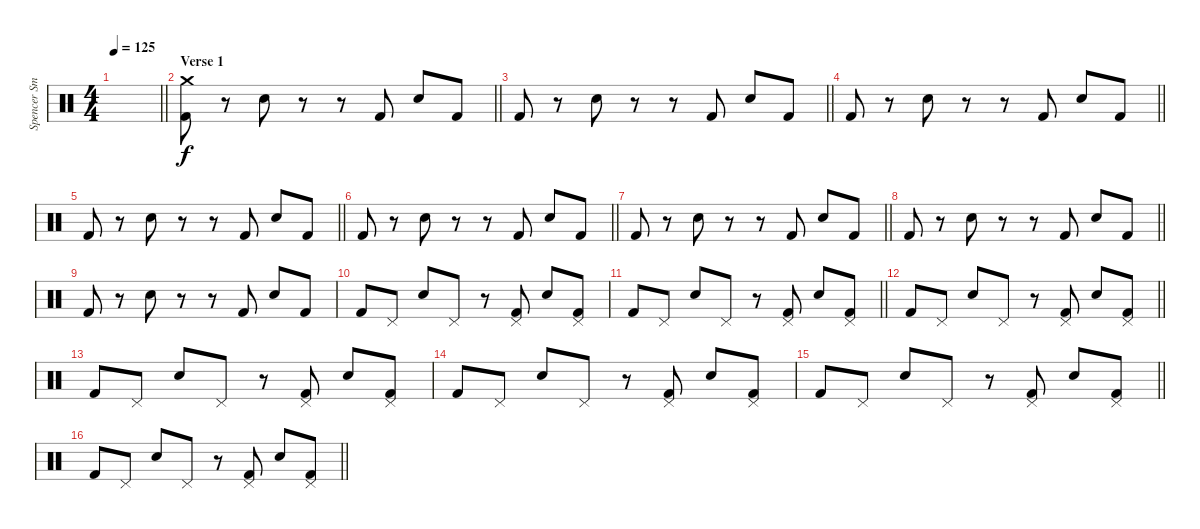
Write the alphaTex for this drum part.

\track ("Spencer Smith (Drums)" "Spencer Sm") {instrument percussion}
\staff {score}
\articulation defaults
\ts (4 4)
\tempo 125
\clef neutral
\barLineRight lightlight
\ks c
|
\section ("" "Verse 1")
\barLineRight lightlight
("Crash medium (hit)" "Kick (hit) 2").8 r.8 "Electric Snare (hit)".8 r.8 r.8 "Kick (hit) 2".8 "Electric Snare (hit)".8 "Kick (hit) 2".8 |
\barLineRight lightlight "Kick (hit) 2".8
r.8 "Electric Snare (hit)".8 r.8 r.8 "Kick (hit) 2".8 "Electric Snare (hit)".8 "Kick (hit) 2".8 |
\barLineRight lightlight "Kick (hit) 2".8
r.8 "Electric Snare (hit)".8 r.8 r.8 "Kick (hit) 2".8 "Electric Snare (hit)".8 "Kick (hit) 2".8 |
\barLineRight lightlight "Kick (hit) 2".8
r.8 "Electric Snare (hit)".8 r.8 r.8 "Kick (hit) 2".8 "Electric Snare (hit)".8 "Kick (hit) 2".8 |
\barLineRight lightlight "Kick (hit) 2".8
r.8 "Electric Snare (hit)".8 r.8 r.8 "Kick (hit) 2".8 "Electric Snare (hit)".8 "Kick (hit) 2".8 |
\barLineRight lightlight "Kick (hit) 2".8
r.8 "Electric Snare (hit)".8 r.8 r.8 "Kick (hit) 2".8 "Electric Snare (hit)".8 "Kick (hit) 2".8 |
\barLineRight lightlight "Kick (hit) 2".8
r.8 "Electric Snare (hit)".8 r.8 r.8 "Kick (hit) 2".8 "Electric Snare (hit)".8 "Kick (hit) 2".8 |
"Kick (hit) 2".8 r.8 "Electric Snare (hit)".8 r.8 r.8 "Kick (hit) 2".8 "Electric Snare (hit)".8 "Kick (hit) 2".8 |
"Kick (hit) 2".8 "Pedal Hi-Hat (hit)".8 "Electric Snare (hit)".8 "Pedal Hi-Hat (hit)".8 r.8 ("Pedal Hi-Hat (hit)" "Kick (hit) 2").8 "Electric Snare (hit)".8 ("Pedal Hi-Hat (hit)" "Kick (hit) 2").8 |
\barLineRight lightlight "Kick (hit) 2".8 "Pedal Hi-Hat (hit)".8 "Electric Snare (hit)".8 "Pedal Hi-Hat (hit)".8
r.8 ("Pedal Hi-Hat (hit)" "Kick (hit) 2").8 "Electric Snare (hit)".8 ("Pedal Hi-Hat (hit)" "Kick (hit) 2").8 |
\barLineRight lightlight "Kick (hit) 2".8 "Pedal Hi-Hat (hit)".8 "Electric Snare (hit)".8 "Pedal Hi-Hat (hit)".8
r.8 ("Pedal Hi-Hat (hit)" "Kick (hit) 2").8 "Electric Snare (hit)".8 ("Pedal Hi-Hat (hit)" "Kick (hit) 2").8 |
"Kick (hit) 2".8 "Pedal Hi-Hat (hit)".8 "Electric Snare (hit)".8 "Pedal Hi-Hat (hit)".8 r.8 ("Pedal Hi-Hat (hit)" "Kick (hit) 2").8 "Electric Snare (hit)".8 ("Pedal Hi-Hat (hit)" "Kick (hit) 2").8 |
"Kick (hit) 2".8 "Pedal Hi-Hat (hit)".8 "Electric Snare (hit)".8 "Pedal Hi-Hat (hit)".8 r.8 ("Pedal Hi-Hat (hit)" "Kick (hit) 2").8 "Electric Snare (hit)".8 ("Pedal Hi-Hat (hit)" "Kick (hit) 2").8 |
\barLineRight lightlight "Kick (hit) 2".8 "Pedal Hi-Hat (hit)".8 "Electric Snare (hit)".8 "Pedal Hi-Hat (hit)".8
r.8 ("Pedal Hi-Hat (hit)" "Kick (hit) 2").8 "Electric Snare (hit)".8 ("Pedal Hi-Hat (hit)" "Kick (hit) 2").8 |
\barLineRight lightlight "Kick (hit) 2".8 "Pedal Hi-Hat (hit)".8 "Electric Snare (hit)".8 "Pedal Hi-Hat (hit)".8
r.8 ("Pedal Hi-Hat (hit)" "Kick (hit) 2").8 "Electric Snare (hit)".8 ("Pedal Hi-Hat (hit)" "Kick (hit) 2").8
